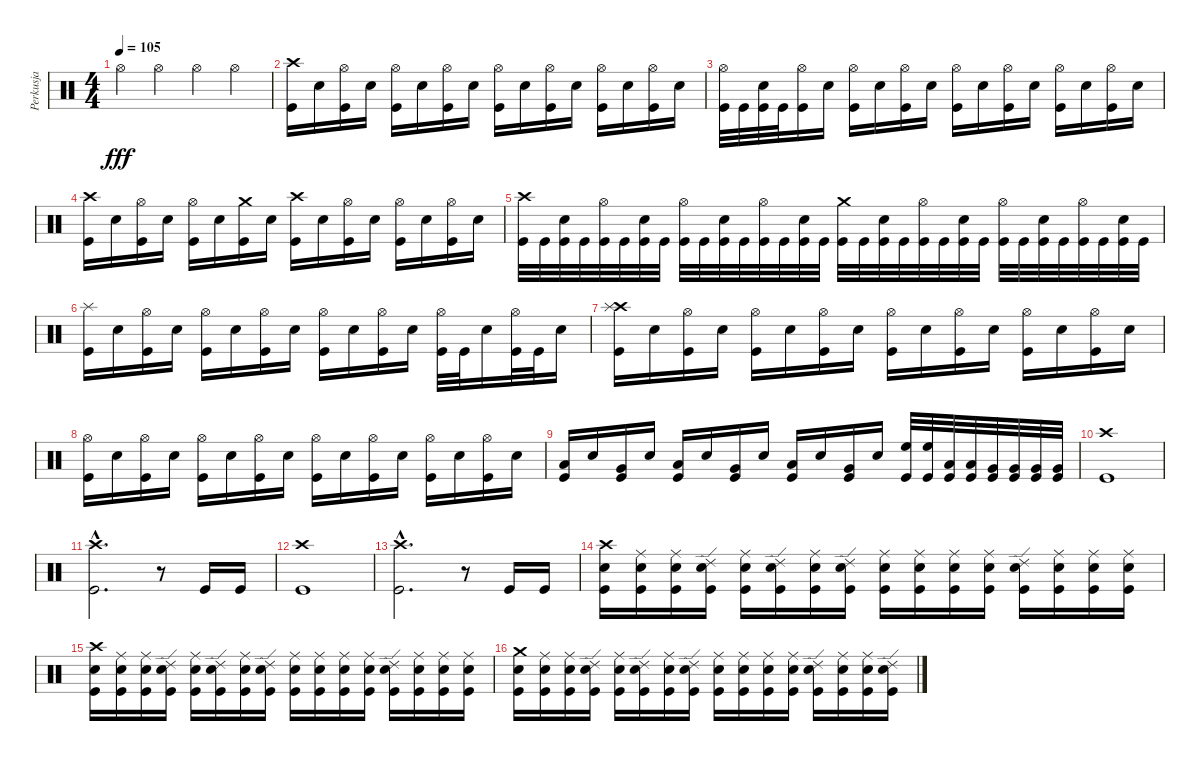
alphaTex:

\track ("Perkusja" "Perkusja") {instrument percussion}
\staff {score}
\articulation defaults
\ts (4 4)
\tempo 105
\clef neutral
\ks c "Hi-Hat (open)".4{dy fff} "Hi-Hat (open)".4 "Hi-Hat (open)".4 "Hi-Hat (open)".4
|
("Crash high (hit)" "Kick (hit)").16 "Snare (hit) 2".16 ("Hi-Hat (open)" "Kick (hit)").16 "Snare (hit) 2".16 ("Hi-Hat (open)" "Kick (hit)").16 "Snare (hit) 2".16 ("Hi-Hat (open)" "Kick (hit)").16 "Snare (hit) 2".16 ("Hi-Hat (open)" "Kick (hit)").16 "Snare (hit) 2".16 ("Hi-Hat (open)" "Kick (hit)").16 "Snare (hit) 2".16 ("Hi-Hat (open)" "Kick (hit)").16 "Snare (hit) 2".16 ("Hi-Hat (open)" "Kick (hit)").16 "Snare (hit) 2".16 |
("Hi-Hat (open)" "Kick (hit)").32 "Kick (hit)".32 ("Snare (hit) 2" "Kick (hit)").32 "Kick (hit)".32 ("Hi-Hat (open)" "Kick (hit)").16 "Snare (hit) 2".16 ("Hi-Hat (open)" "Kick (hit)").16 "Snare (hit) 2".16 ("Hi-Hat (open)" "Kick (hit)").16 "Snare (hit) 2".16 ("Hi-Hat (open)" "Kick (hit)").16 "Snare (hit) 2".16 ("Hi-Hat (open)" "Kick (hit)").16 "Snare (hit) 2".16 ("Hi-Hat (open)" "Kick (hit)").16 "Snare (hit) 2".16 ("Hi-Hat (open)" "Kick (hit)").16 "Snare (hit) 2".16 |
("Crash high (hit)" "Kick (hit)").16 "Snare (hit) 2".16 ("Hi-Hat (open)" "Kick (hit)").16 "Snare (hit) 2".16 ("Hi-Hat (open)" "Kick (hit)").16 "Snare (hit) 2".16 ("Crash medium (hit)" "Kick (hit)").16 "Snare (hit) 2".16 ("Crash high (hit)" "Kick (hit)").16 "Snare (hit) 2".16 ("Hi-Hat (open)" "Kick (hit)").16 "Snare (hit) 2".16 ("Hi-Hat (open)" "Kick (hit)").16 "Snare (hit) 2".16 ("Hi-Hat (open)" "Kick (hit)").16 "Snare (hit) 2".16 |
("Crash high (hit)" "Kick (hit)").32 "Kick (hit)".32 ("Snare (hit) 2" "Kick (hit)").32 "Kick (hit)".32 ("Hi-Hat (open)" "Kick (hit)").32 "Kick (hit)".32 ("Snare (hit) 2" "Kick (hit)").32 "Kick (hit)".32 ("Hi-Hat (open)" "Kick (hit)").32 "Kick (hit)".32 ("Snare (hit) 2" "Kick (hit)").32 "Kick (hit)".32 ("Hi-Hat (open)" "Kick (hit)").32 "Kick (hit)".32 ("Snare (hit) 2" "Kick (hit)").32 "Kick (hit)".32 ("Crash medium (hit)" "Kick (hit)").32 "Kick (hit)".32 ("Snare (hit) 2" "Kick (hit)").32 "Kick (hit)".32 ("Hi-Hat (open)" "Kick (hit)").32 "Kick (hit)".32 ("Snare (hit) 2" "Kick (hit)").32 "Kick (hit)".32 ("Hi-Hat (open)" "Kick (hit)").32 "Kick (hit)".32 ("Snare (hit) 2" "Kick (hit)").32 "Kick (hit)".32 ("Hi-Hat (open)" "Kick (hit)").32 "Kick (hit)".32 ("Snare (hit) 2" "Kick (hit)").32 "Kick (hit)".32 |
("Splash (hit)" "Kick (hit)").16 "Snare (hit) 2".16 ("Hi-Hat (open)" "Kick (hit)").16 "Snare (hit) 2".16 ("Hi-Hat (open)" "Kick (hit)").16 "Snare (hit) 2".16 ("Hi-Hat (open)" "Kick (hit)").16 "Snare (hit) 2".16 ("Hi-Hat (open)" "Kick (hit)").16 "Snare (hit) 2".16 ("Hi-Hat (open)" "Kick (hit)").16 "Snare (hit) 2".16 ("Hi-Hat (open)" "Kick (hit)").32 "Kick (hit)".32 "Snare (hit) 2".16 ("Hi-Hat (open)" "Kick (hit)").32 "Kick (hit)".32 "Snare (hit) 2".16 |
("Crash high (hit)" "Splash (hit)" "Kick (hit)").16 "Snare (hit) 2".16 ("Hi-Hat (open)" "Kick (hit)").16 "Snare (hit) 2".16 ("Hi-Hat (open)" "Kick (hit)").16 "Snare (hit) 2".16 ("Hi-Hat (open)" "Kick (hit)").16 "Snare (hit) 2".16 ("Hi-Hat (open)" "Kick (hit)").16 "Snare (hit) 2".16 ("Hi-Hat (open)" "Kick (hit)").16 "Snare (hit) 2".16 ("Hi-Hat (open)" "Kick (hit)").16 "Snare (hit) 2".16 ("Hi-Hat (open)" "Kick (hit)").16 "Snare (hit) 2".16 |
("Hi-Hat (open)" "Kick (hit)").16 "Snare (hit) 2".16 ("Hi-Hat (open)" "Kick (hit)").16 "Snare (hit) 2".16 ("Hi-Hat (open)" "Kick (hit)").16 "Snare (hit) 2".16 ("Hi-Hat (open)" "Kick (hit)").16 "Snare (hit) 2".16 ("Hi-Hat (open)" "Kick (hit)").16 "Snare (hit) 2".16 ("Hi-Hat (open)" "Kick (hit)").16 "Snare (hit) 2".16 ("Hi-Hat (open)" "Kick (hit)").16 "Snare (hit) 2".16 ("Hi-Hat (open)" "Kick (hit)").16 "Snare (hit) 2".16 |
("Low Tom (hit)" "Kick (hit)").16 "Snare (hit) 2".16 ("Very Low Tom (hit)" "Kick (hit)").16 "Snare (hit) 2".16 ("Low Tom (hit)" "Kick (hit)").16 "Snare (hit) 2".16 ("Very Low Tom (hit)" "Kick (hit)").16 "Snare (hit) 2".16 ("Low Tom (hit)" "Kick (hit)").16 "Snare (hit) 2".16 ("Very Low Tom (hit)" "Kick (hit)").16 "Snare (hit) 2".16 ("High Floor Tom (hit)" "Kick (hit)").32 ("High Floor Tom (hit)" "Kick (hit)").32 ("Low Tom (hit)" "Kick (hit)").32 ("Low Tom (hit)" "Kick (hit)").32 ("Very Low Tom (hit)" "Kick (hit)").32 ("Very Low Tom (hit)" "Kick (hit)").32 ("Very Low Tom (hit)" "Kick (hit)").32 ("Very Low Tom (hit)" "Kick (hit)").32 |
("Crash high (hit)" "Kick (hit)").1 |
("Crash high (hit)"{hac} "Kick (hit)"{hac}).2{d} r.8 "Kick (hit)".16 "Kick (hit)".16 |
("Crash high (hit)" "Kick (hit)").1 |
("Crash high (hit)"{hac} "Kick (hit)"{hac}).2{d} r.8 "Kick (hit)".16 "Kick (hit)".16 |
("Crash high (hit)" "Snare (hit) 2" "Kick (hit)").16 ("Ride (middle)" "Snare (hit) 2" "Kick (hit)").16 ("Ride (middle)" "Snare (hit) 2" "Kick (hit)").16 ("Ride (edge) 2" "Snare (hit) 2" "Kick (hit)").16 ("Ride (middle)" "Snare (hit) 2" "Kick (hit)").16 ("Ride (edge) 2" "Snare (hit) 2" "Kick (hit)").16 ("Ride (middle)" "Snare (hit) 2" "Kick (hit)").16 ("Ride (edge) 2" "Snare (hit) 2" "Kick (hit)").16 ("Ride (middle)" "Snare (hit) 2" "Kick (hit)").16 ("Ride (middle)" "Snare (hit) 2" "Kick (hit)").16 ("Ride (middle)" "Snare (hit) 2" "Kick (hit)").16 ("Ride (middle)" "Snare (hit) 2" "Kick (hit)").16 ("Ride (edge) 2" "Snare (hit) 2" "Kick (hit)").16 ("Ride (middle)" "Snare (hit) 2" "Kick (hit)").16 ("Ride (middle)" "Snare (hit) 2" "Kick (hit)").16 ("Ride (middle)" "Snare (hit) 2" "Kick (hit)").16 |
("Crash high (hit)" "Snare (hit) 2" "Kick (hit)").16 ("Ride (middle)" "Snare (hit) 2" "Kick (hit)").16 ("Ride (middle)" "Snare (hit) 2" "Kick (hit)").16 ("Ride (edge) 2" "Snare (hit) 2" "Kick (hit)").16 ("Ride (middle)" "Snare (hit) 2" "Kick (hit)").16 ("Ride (edge) 2" "Snare (hit) 2" "Kick (hit)").16 ("Ride (middle)" "Snare (hit) 2" "Kick (hit)").16 ("Ride (edge) 2" "Snare (hit) 2" "Kick (hit)").16 ("Ride (middle)" "Snare (hit) 2" "Kick (hit)").16 ("Ride (middle)" "Snare (hit) 2" "Kick (hit)").16 ("Ride (middle)" "Snare (hit) 2" "Kick (hit)").16 ("Ride (middle)" "Snare (hit) 2" "Kick (hit)").16 ("Ride (edge) 2" "Snare (hit) 2" "Kick (hit)").16 ("Ride (middle)" "Snare (hit) 2" "Kick (hit)").16 ("Ride (middle)" "Snare (hit) 2" "Kick (hit)").16 ("Ride (middle)" "Snare (hit) 2" "Kick (hit)").16 |
("Crash medium (hit)" "Snare (hit) 2" "Kick (hit)").16 ("Ride (middle)" "Snare (hit) 2" "Kick (hit)").16 ("Ride (middle)" "Snare (hit) 2" "Kick (hit)").16 ("Ride (edge) 2" "Snare (hit) 2" "Kick (hit)").16 ("Ride (middle)" "Snare (hit) 2" "Kick (hit)").16 ("Ride (edge) 2" "Snare (hit) 2" "Kick (hit)").16 ("Ride (middle)" "Snare (hit) 2" "Kick (hit)").16 ("Ride (edge) 2" "Snare (hit) 2" "Kick (hit)").16 ("Ride (middle)" "Snare (hit) 2" "Kick (hit)").16 ("Ride (middle)" "Snare (hit) 2" "Kick (hit)").16 ("Ride (middle)" "Snare (hit) 2" "Kick (hit)").16 ("Ride (middle)" "Snare (hit) 2" "Kick (hit)").16 ("Ride (edge) 2" "Snare (hit) 2" "Kick (hit)").16 ("Ride (middle)" "Snare (hit) 2" "Kick (hit)").16 ("Ride (middle)" "Snare (hit) 2" "Kick (hit)").16 ("Ride (edge) 2" "Snare (hit) 2" "Kick (hit)").16
